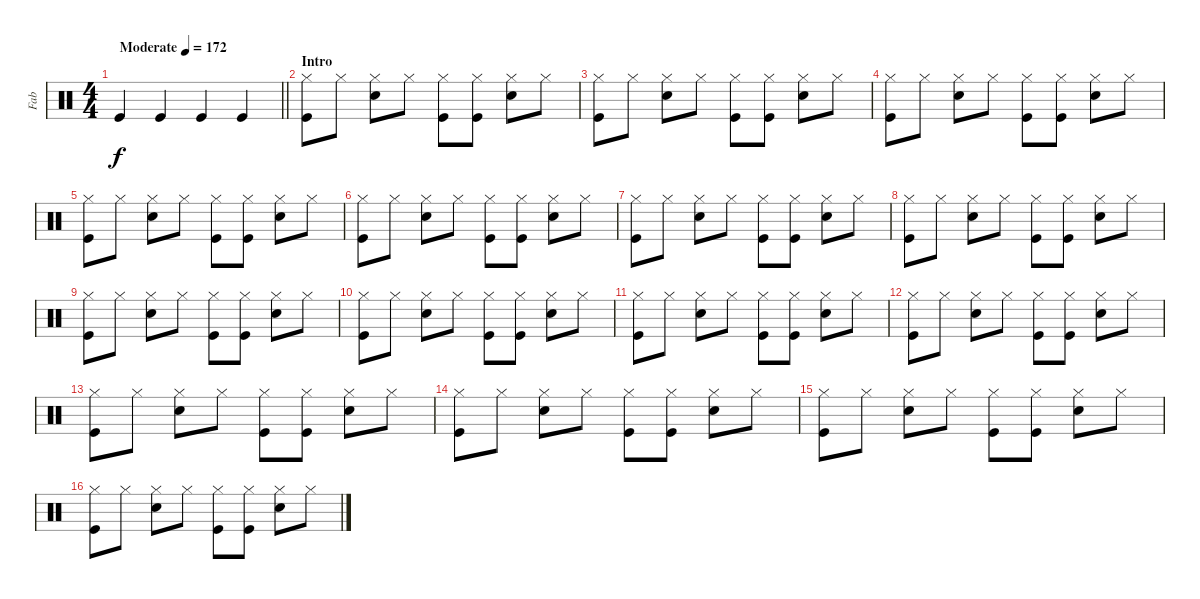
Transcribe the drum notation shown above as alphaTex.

\track ("Fab" "Fab") {instrument percussion}
\staff {score}
\articulation defaults
\ts (4 4)
\tempo (172 "Moderate")
\clef neutral
\barLineRight lightlight
\ks c "Kick (hit)".4{dy f} "Kick (hit)".4 "Kick (hit)".4 "Kick (hit)".4
|
\section ("" "Intro")
("Hi-Hat (closed)" "Kick (hit)").8 "Hi-Hat (closed)".8 ("Hi-Hat (closed)" "Snare (hit) 2").8 "Hi-Hat (closed)".8 ("Hi-Hat (closed)" "Kick (hit)").8 ("Hi-Hat (closed)" "Kick (hit)").8 ("Hi-Hat (closed)" "Snare (hit) 2").8 "Hi-Hat (closed)".8 |
("Hi-Hat (closed)" "Kick (hit)").8 "Hi-Hat (closed)".8 ("Hi-Hat (closed)" "Snare (hit) 2").8 "Hi-Hat (closed)".8 ("Hi-Hat (closed)" "Kick (hit)").8 ("Hi-Hat (closed)" "Kick (hit)").8 ("Hi-Hat (closed)" "Snare (hit) 2").8 "Hi-Hat (closed)".8 |
("Hi-Hat (closed)" "Kick (hit)").8 "Hi-Hat (closed)".8 ("Hi-Hat (closed)" "Snare (hit) 2").8 "Hi-Hat (closed)".8 ("Hi-Hat (closed)" "Kick (hit)").8 ("Hi-Hat (closed)" "Kick (hit)").8 ("Hi-Hat (closed)" "Snare (hit) 2").8 "Hi-Hat (closed)".8 |
("Hi-Hat (closed)" "Kick (hit)").8 "Hi-Hat (closed)".8 ("Hi-Hat (closed)" "Snare (hit) 2").8 "Hi-Hat (closed)".8 ("Hi-Hat (closed)" "Kick (hit)").8 ("Hi-Hat (closed)" "Kick (hit)").8 ("Hi-Hat (closed)" "Snare (hit) 2").8 "Hi-Hat (closed)".8 |
("Hi-Hat (closed)" "Kick (hit)").8 "Hi-Hat (closed)".8 ("Hi-Hat (closed)" "Snare (hit) 2").8 "Hi-Hat (closed)".8 ("Hi-Hat (closed)" "Kick (hit)").8 ("Hi-Hat (closed)" "Kick (hit)").8 ("Hi-Hat (closed)" "Snare (hit) 2").8 "Hi-Hat (closed)".8 |
("Hi-Hat (closed)" "Kick (hit)").8 "Hi-Hat (closed)".8 ("Hi-Hat (closed)" "Snare (hit) 2").8 "Hi-Hat (closed)".8 ("Hi-Hat (closed)" "Kick (hit)").8 ("Hi-Hat (closed)" "Kick (hit)").8 ("Hi-Hat (closed)" "Snare (hit) 2").8 "Hi-Hat (closed)".8 |
("Hi-Hat (closed)" "Kick (hit)").8 "Hi-Hat (closed)".8 ("Hi-Hat (closed)" "Snare (hit) 2").8 "Hi-Hat (closed)".8 ("Hi-Hat (closed)" "Kick (hit)").8 ("Hi-Hat (closed)" "Kick (hit)").8 ("Hi-Hat (closed)" "Snare (hit) 2").8 "Hi-Hat (closed)".8 |
("Hi-Hat (closed)" "Kick (hit)").8 "Hi-Hat (closed)".8 ("Hi-Hat (closed)" "Snare (hit) 2").8 "Hi-Hat (closed)".8 ("Hi-Hat (closed)" "Kick (hit)").8 ("Hi-Hat (closed)" "Kick (hit)").8 ("Hi-Hat (closed)" "Snare (hit) 2").8 "Hi-Hat (closed)".8 |
("Hi-Hat (closed)" "Kick (hit)").8 "Hi-Hat (closed)".8 ("Hi-Hat (closed)" "Snare (hit) 2").8 "Hi-Hat (closed)".8 ("Hi-Hat (closed)" "Kick (hit)").8 ("Hi-Hat (closed)" "Kick (hit)").8 ("Hi-Hat (closed)" "Snare (hit) 2").8 "Hi-Hat (closed)".8 |
("Hi-Hat (closed)" "Kick (hit)").8 "Hi-Hat (closed)".8 ("Hi-Hat (closed)" "Snare (hit) 2").8 "Hi-Hat (closed)".8 ("Hi-Hat (closed)" "Kick (hit)").8 ("Hi-Hat (closed)" "Kick (hit)").8 ("Hi-Hat (closed)" "Snare (hit) 2").8 "Hi-Hat (closed)".8 |
("Hi-Hat (closed)" "Kick (hit)").8 "Hi-Hat (closed)".8 ("Hi-Hat (closed)" "Snare (hit) 2").8 "Hi-Hat (closed)".8 ("Hi-Hat (closed)" "Kick (hit)").8 ("Hi-Hat (closed)" "Kick (hit)").8 ("Hi-Hat (closed)" "Snare (hit) 2").8 "Hi-Hat (closed)".8 |
("Hi-Hat (closed)" "Kick (hit)").8 "Hi-Hat (closed)".8 ("Hi-Hat (closed)" "Snare (hit) 2").8 "Hi-Hat (closed)".8 ("Hi-Hat (closed)" "Kick (hit)").8 ("Hi-Hat (closed)" "Kick (hit)").8 ("Hi-Hat (closed)" "Snare (hit) 2").8 "Hi-Hat (closed)".8 |
("Hi-Hat (closed)" "Kick (hit)").8 "Hi-Hat (closed)".8 ("Hi-Hat (closed)" "Snare (hit) 2").8 "Hi-Hat (closed)".8 ("Hi-Hat (closed)" "Kick (hit)").8 ("Hi-Hat (closed)" "Kick (hit)").8 ("Hi-Hat (closed)" "Snare (hit) 2").8 "Hi-Hat (closed)".8 |
("Hi-Hat (closed)" "Kick (hit)").8 "Hi-Hat (closed)".8 ("Hi-Hat (closed)" "Snare (hit) 2").8 "Hi-Hat (closed)".8 ("Hi-Hat (closed)" "Kick (hit)").8 ("Hi-Hat (closed)" "Kick (hit)").8 ("Hi-Hat (closed)" "Snare (hit) 2").8 "Hi-Hat (closed)".8 |
("Hi-Hat (closed)" "Kick (hit)").8 "Hi-Hat (closed)".8 ("Hi-Hat (closed)" "Snare (hit) 2").8 "Hi-Hat (closed)".8 ("Hi-Hat (closed)" "Kick (hit)").8 ("Hi-Hat (closed)" "Kick (hit)").8 ("Hi-Hat (closed)" "Snare (hit) 2").8 "Hi-Hat (closed)".8
